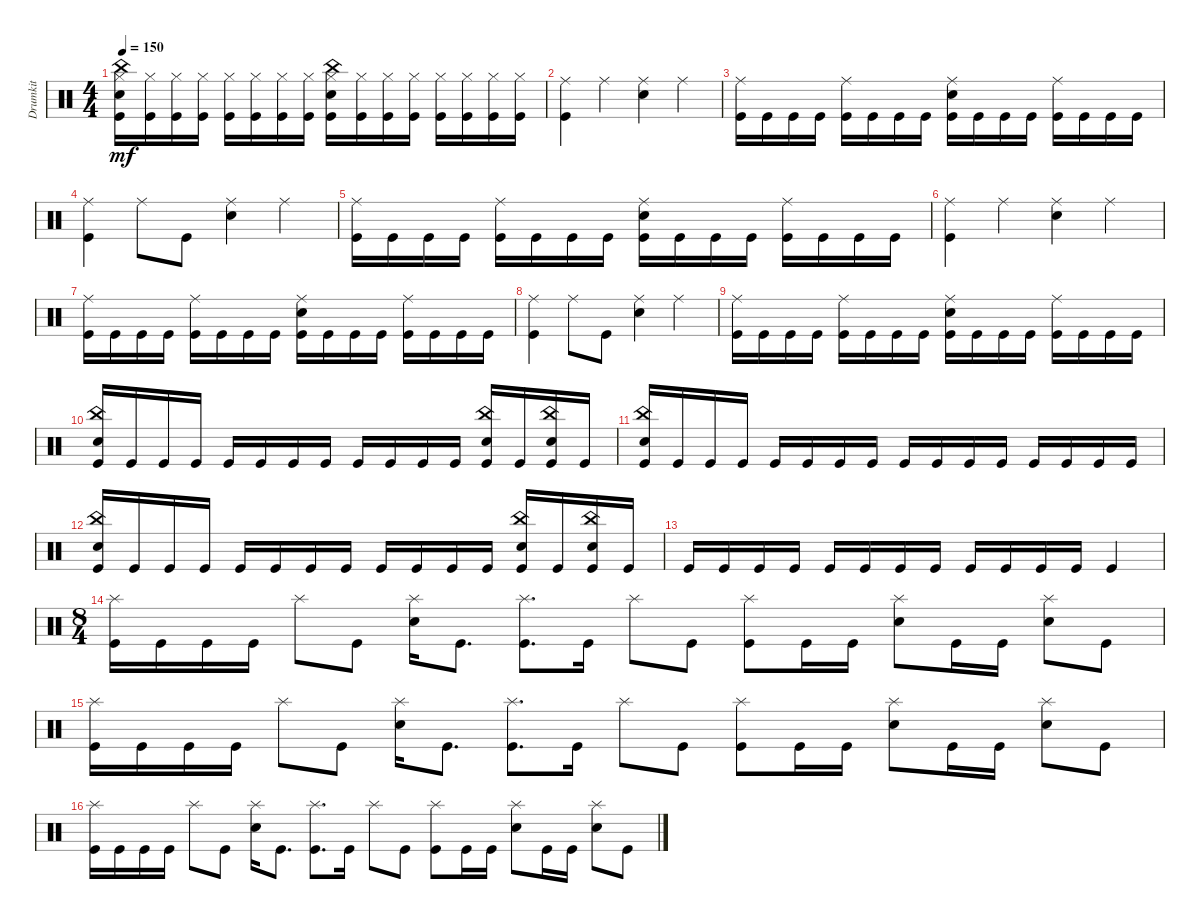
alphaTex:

\track ("Drumkit" "Drumkit") {instrument percussion}
\staff {score}
\articulation defaults
\ts (4 4)
\tempo 150
\clef neutral
\ks c
("Kick (hit)" "China (hit)" "Snare (hit) 2" "Hi-Hat (closed)").16{dy mf} ("Kick (hit)" "Hi-Hat (closed)").16 ("Kick (hit)" "Hi-Hat (closed)").16 ("Kick (hit)" "Hi-Hat (closed)").16 ("Kick (hit)" "Hi-Hat (closed)").16 ("Kick (hit)" "Hi-Hat (closed)").16 ("Kick (hit)" "Hi-Hat (closed)").16 ("Kick (hit)" "Hi-Hat (closed)").16 ("Kick (hit)" "Snare (hit) 2" "China (hit)" "Hi-Hat (closed)").16 ("Kick (hit)" "Hi-Hat (closed)").16 ("Kick (hit)" "Hi-Hat (closed)").16 ("Kick (hit)" "Hi-Hat (closed)").16 ("Kick (hit)" "Hi-Hat (closed)").16 ("Kick (hit)" "Hi-Hat (closed)").16 ("Kick (hit)" "Hi-Hat (closed)").16 ("Kick (hit)" "Hi-Hat (closed)").16 |
("Ride (middle)" "Kick (hit)").4 "Ride (middle)".4 ("Ride (middle)" "Snare (hit) 2").4 "Ride (middle)".4 |
("Kick (hit)" "Ride (middle)").16 "Kick (hit)".16 "Kick (hit)".16 "Kick (hit)".16 ("Kick (hit)" "Ride (middle)").16 "Kick (hit)".16 "Kick (hit)".16 "Kick (hit)".16 ("Kick (hit)" "Ride (middle)" "Snare (hit) 2").16 "Kick (hit)".16 "Kick (hit)".16 "Kick (hit)".16 ("Kick (hit)" "Ride (middle)").16 "Kick (hit)".16 "Kick (hit)".16 "Kick (hit)".16 |
("Ride (middle)" "Kick (hit)").4 "Ride (middle)".8 "Kick (hit)".8 ("Ride (middle)" "Snare (hit) 2").4 "Ride (middle)".4 |
("Kick (hit)" "Ride (middle)").16 "Kick (hit)".16 "Kick (hit)".16 "Kick (hit)".16 ("Kick (hit)" "Ride (middle)").16 "Kick (hit)".16 "Kick (hit)".16 "Kick (hit)".16 ("Kick (hit)" "Ride (middle)" "Snare (hit) 2").16 "Kick (hit)".16 "Kick (hit)".16 "Kick (hit)".16 ("Kick (hit)" "Ride (middle)").16 "Kick (hit)".16 "Kick (hit)".16 "Kick (hit)".16 |
("Ride (middle)" "Kick (hit)").4 "Ride (middle)".4 ("Ride (middle)" "Snare (hit) 2").4 "Ride (middle)".4 |
("Kick (hit)" "Ride (middle)").16 "Kick (hit)".16 "Kick (hit)".16 "Kick (hit)".16 ("Kick (hit)" "Ride (middle)").16 "Kick (hit)".16 "Kick (hit)".16 "Kick (hit)".16 ("Kick (hit)" "Ride (middle)" "Snare (hit) 2").16 "Kick (hit)".16 "Kick (hit)".16 "Kick (hit)".16 ("Kick (hit)" "Ride (middle)").16 "Kick (hit)".16 "Kick (hit)".16 "Kick (hit)".16 |
("Ride (middle)" "Kick (hit)").4 "Ride (middle)".8 "Kick (hit)".8 ("Ride (middle)" "Snare (hit) 2").4 "Ride (middle)".4 |
("Kick (hit)" "Ride (middle)").16 "Kick (hit)".16 "Kick (hit)".16 "Kick (hit)".16 ("Kick (hit)" "Ride (middle)").16 "Kick (hit)".16 "Kick (hit)".16 "Kick (hit)".16 ("Kick (hit)" "Ride (middle)" "Snare (hit) 2").16 "Kick (hit)".16 "Kick (hit)".16 "Kick (hit)".16 ("Kick (hit)" "Ride (middle)").16 "Kick (hit)".16 "Kick (hit)".16 "Kick (hit)".16 |
("Kick (hit)" "Snare (hit) 2" "China (hit)").16 "Kick (hit)".16 "Kick (hit)".16 "Kick (hit)".16 "Kick (hit)".16 "Kick (hit)".16 "Kick (hit)".16 "Kick (hit)".16 "Kick (hit)".16 "Kick (hit)".16 "Kick (hit)".16 "Kick (hit)".16 ("Kick (hit)" "China (hit)" "Snare (hit) 2").16 "Kick (hit)".16 ("Kick (hit)" "China (hit)" "Snare (hit) 2").16 "Kick (hit)".16 |
("Kick (hit)" "Snare (hit) 2" "China (hit)").16 "Kick (hit)".16 "Kick (hit)".16 "Kick (hit)".16 "Kick (hit)".16 "Kick (hit)".16 "Kick (hit)".16 "Kick (hit)".16 "Kick (hit)".16 "Kick (hit)".16 "Kick (hit)".16 "Kick (hit)".16 "Kick (hit)".16 "Kick (hit)".16 "Kick (hit)".16 "Kick (hit)".16 |
("Kick (hit)" "Snare (hit) 2" "China (hit)").16 "Kick (hit)".16 "Kick (hit)".16 "Kick (hit)".16 "Kick (hit)".16 "Kick (hit)".16 "Kick (hit)".16 "Kick (hit)".16 "Kick (hit)".16 "Kick (hit)".16 "Kick (hit)".16 "Kick (hit)".16 ("Kick (hit)" "China (hit)" "Snare (hit) 2").16 "Kick (hit)".16 ("Kick (hit)" "China (hit)" "Snare (hit) 2").16 "Kick (hit)".16 |
"Kick (hit)".16 "Kick (hit)".16 "Kick (hit)".16 "Kick (hit)".16 "Kick (hit)".16 "Kick (hit)".16 "Kick (hit)".16 "Kick (hit)".16 "Kick (hit)".16 "Kick (hit)".16 "Kick (hit)".16 "Kick (hit)".16 "Kick (hit)".4 |
\ts (8 4)
("Kick (hit)" "Splash (hit)").16 "Kick (hit)".16 "Kick (hit)".16 "Kick (hit)".16 "Splash (hit)".8 "Kick (hit)".8 ("Snare (hit) 2" "Splash (hit)").16 "Kick (hit)".8{d} ("Kick (hit)" "Splash (hit)").8{d} "Kick (hit)".16 "Splash (hit)".8 "Kick (hit)".8 ("Kick (hit)" "Splash (hit)").8 "Kick (hit)".16 "Kick (hit)".16 ("Snare (hit) 2" "Splash (hit)").8 "Kick (hit)".16 "Kick (hit)".16 ("Snare (hit) 2" "Splash (hit)").8 "Kick (hit)".8 |
("Kick (hit)" "Splash (hit)").16 "Kick (hit)".16 "Kick (hit)".16 "Kick (hit)".16 "Splash (hit)".8 "Kick (hit)".8 ("Snare (hit) 2" "Splash (hit)").16 "Kick (hit)".8{d} ("Kick (hit)" "Splash (hit)").8{d} "Kick (hit)".16 "Splash (hit)".8 "Kick (hit)".8 ("Kick (hit)" "Splash (hit)").8 "Kick (hit)".16 "Kick (hit)".16 ("Snare (hit) 2" "Splash (hit)").8 "Kick (hit)".16 "Kick (hit)".16 ("Snare (hit) 2" "Splash (hit)").8 "Kick (hit)".8 |
("Kick (hit)" "Splash (hit)").16 "Kick (hit)".16 "Kick (hit)".16 "Kick (hit)".16 "Splash (hit)".8 "Kick (hit)".8 ("Snare (hit) 2" "Splash (hit)").16 "Kick (hit)".8{d} ("Kick (hit)" "Splash (hit)").8{d} "Kick (hit)".16 "Splash (hit)".8 "Kick (hit)".8 ("Kick (hit)" "Splash (hit)").8 "Kick (hit)".16 "Kick (hit)".16 ("Snare (hit) 2" "Splash (hit)").8 "Kick (hit)".16 "Kick (hit)".16 ("Snare (hit) 2" "Splash (hit)").8 "Kick (hit)".8
